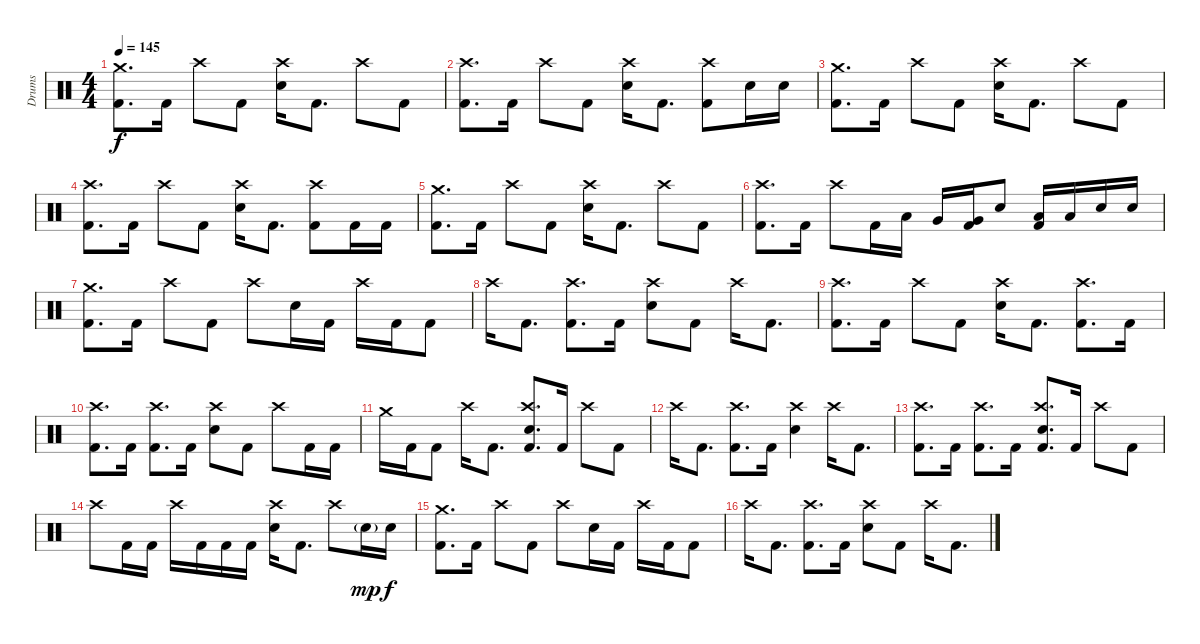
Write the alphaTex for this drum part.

\track ("Drums" "Drums") {instrument percussion}
\staff {score}
\articulation defaults
\ts (4 4)
\tempo 145
\clef neutral
\ks c
("Crash medium (hit)" "Kick (hit) 2").8{d dy f} "Kick (hit) 2".16 "Crash high (hit)".8 "Kick (hit) 2".8 ("Crash high (hit)" "Snare (hit) 2").16 "Kick (hit) 2".8{d} "Crash high (hit)".8 "Kick (hit) 2".8 |
("Crash high (hit)" "Kick (hit) 2").8{d} "Kick (hit) 2".16 "Crash high (hit)".8 "Kick (hit) 2".8 ("Crash high (hit)" "Snare (hit) 2").16 "Kick (hit) 2".8{d} ("Crash high (hit)" "Kick (hit) 2").8 "Snare (hit) 2".16 "Snare (hit) 2".16 |
("Crash medium (hit)" "Kick (hit) 2").8{d} "Kick (hit) 2".16 "Crash high (hit)".8 "Kick (hit) 2".8 ("Crash high (hit)" "Snare (hit) 2").16 "Kick (hit) 2".8{d} "Crash high (hit)".8 "Kick (hit) 2".8 |
("Crash high (hit)" "Kick (hit) 2").8{d} "Kick (hit) 2".16 "Crash high (hit)".8 "Kick (hit) 2".8 ("Crash high (hit)" "Snare (hit) 2").16 "Kick (hit) 2".8{d} ("Crash high (hit)" "Kick (hit) 2").8 "Kick (hit) 2".16 "Kick (hit) 2".16 |
("Crash medium (hit)" "Kick (hit) 2").8{d} "Kick (hit) 2".16 "Crash high (hit)".8 "Kick (hit) 2".8 ("Crash high (hit)" "Snare (hit) 2").16 "Kick (hit) 2".8{d} "Crash high (hit)".8 "Kick (hit) 2".8 |
("Crash high (hit)" "Kick (hit) 2").8{d} "Kick (hit) 2".16 "Crash high (hit)".8 "Kick (hit) 2".16 "Low Tom (hit)".16 "Very Low Tom (hit)".16 ("Very Low Tom (hit)" "Kick (hit) 2").16 "Snare (hit) 2".8 ("Low Tom (hit)" "Kick (hit) 2").16 "Low Tom (hit)".16 "Snare (hit) 2".16 "Snare (hit) 2".16 |
("Crash medium (hit)" "Kick (hit) 2").8{d} "Kick (hit) 2".16 "Crash high (hit)".8 "Kick (hit) 2".8 "Crash high (hit)".8 "Snare (hit) 2".16 "Kick (hit) 2".16 "Crash high (hit)".16 "Kick (hit) 2".16 "Kick (hit) 2".8 |
"Crash high (hit)".16 "Kick (hit) 2".8{d} ("Crash high (hit)" "Kick (hit) 2").8{d} "Kick (hit) 2".16 ("Crash high (hit)" "Snare (hit) 2").8 "Kick (hit) 2".8 "Crash high (hit)".16 "Kick (hit) 2".8{d} |
("Crash high (hit)" "Kick (hit) 2").8{d} "Kick (hit) 2".16 "Crash high (hit)".8 "Kick (hit) 2".8 ("Crash high (hit)" "Snare (hit) 2").16 "Kick (hit) 2".8{d} ("Crash high (hit)" "Kick (hit) 2").8{d} "Kick (hit) 2".16 |
("Crash high (hit)" "Kick (hit) 2").8{d} "Kick (hit) 2".16 ("Crash high (hit)" "Kick (hit) 2").8{d} "Kick (hit) 2".16 ("Crash high (hit)" "Snare (hit) 2").8 "Kick (hit) 2".8 "Crash high (hit)".8 "Kick (hit) 2".16 "Kick (hit) 2".16 |
"Crash medium (hit)".16 "Kick (hit) 2".16 "Kick (hit) 2".8 "Crash high (hit)".16 "Kick (hit) 2".8{d} ("Crash high (hit)" "Snare (hit) 2" "Kick (hit) 2").8{d} "Kick (hit) 2".16 "Crash high (hit)".8 "Kick (hit) 2".8 |
"Crash high (hit)".16 "Kick (hit) 2".8{d} ("Crash high (hit)" "Kick (hit) 2").8{d} "Kick (hit) 2".16 ("Crash high (hit)" "Snare (hit) 2").4 "Crash high (hit)".16 "Kick (hit) 2".8{d} |
("Crash high (hit)" "Kick (hit) 2").8{d} "Kick (hit) 2".16 ("Crash high (hit)" "Kick (hit) 2").8{d} "Kick (hit) 2".16 ("Crash high (hit)" "Snare (hit) 2" "Kick (hit) 2").8{d} "Kick (hit) 2".16 "Crash high (hit)".8 "Kick (hit) 2".8 |
"Crash high (hit)".8 "Kick (hit) 2".16 "Kick (hit) 2".16 "Crash high (hit)".16 "Kick (hit) 2".16 "Kick (hit) 2".16 "Kick (hit) 2".16 ("Crash high (hit)" "Snare (hit) 2").16 "Kick (hit) 2".8{d} "Crash high (hit)".8 "Snare (hit) 2"{g}.16{dy mp} "Snare (hit) 2".16{dy f} |
("Crash medium (hit)" "Kick (hit) 2").8{d} "Kick (hit) 2".16 "Crash high (hit)".8 "Kick (hit) 2".8 "Crash high (hit)".8 "Snare (hit) 2".16 "Kick (hit) 2".16 "Crash high (hit)".16 "Kick (hit) 2".16 "Kick (hit) 2".8 |
"Crash high (hit)".16 "Kick (hit) 2".8{d} ("Crash high (hit)" "Kick (hit) 2").8{d} "Kick (hit) 2".16 ("Crash high (hit)" "Snare (hit) 2").8 "Kick (hit) 2".8 "Crash high (hit)".16 "Kick (hit) 2".8{d}
